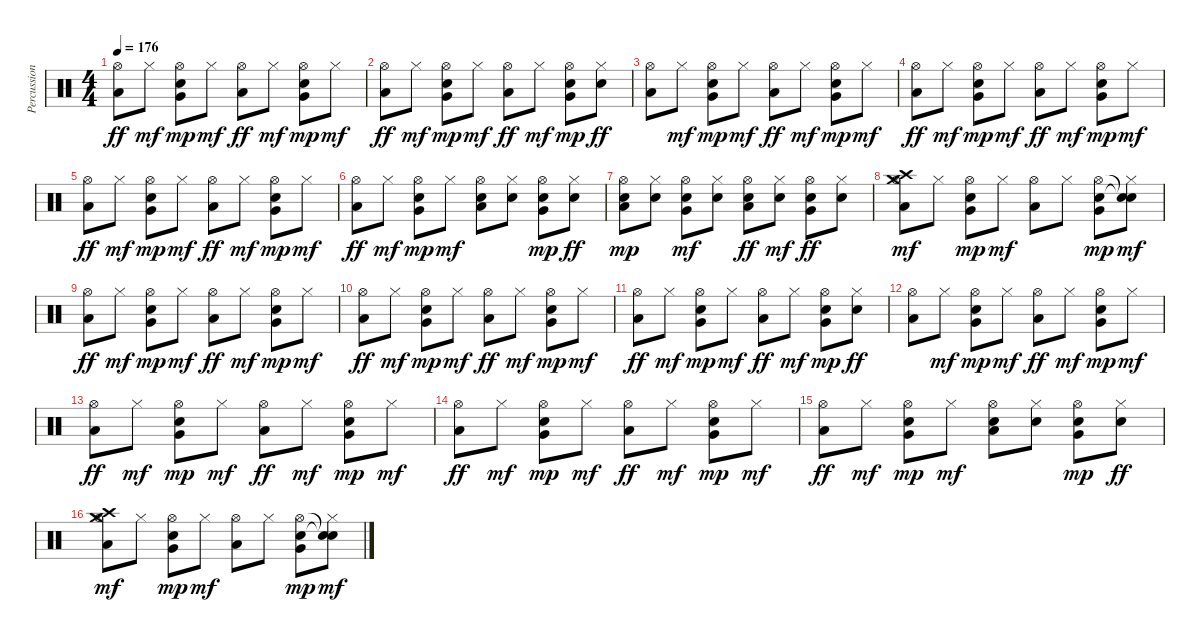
\track ("Percussions" "Percussion") {instrument percussion}
\staff {score}
\articulation defaults
\ts (4 4)
\tempo 176
\clef neutral
\ks c
("Hi-Hat (open)" "Low Floor Tom (hit)").8{dy ff} "Hi-Hat (closed)".8{dy mf} ("Hi-Hat (open)" "Electric Snare (hit)" "Very Low Tom (hit)").8{dy mp} "Hi-Hat (closed)".8{dy mf} ("Hi-Hat (open)" "Low Floor Tom (hit)").8{dy ff} "Hi-Hat (closed)".8{dy mf} ("Hi-Hat (open)" "Electric Snare (hit)" "Very Low Tom (hit)").8{dy mp} "Hi-Hat (closed)".8{dy mf} |
("Hi-Hat (open)" "Low Floor Tom (hit)").8{dy ff} "Hi-Hat (closed)".8{dy mf} ("Hi-Hat (open)" "Electric Snare (hit)" "Very Low Tom (hit)").8{dy mp} "Hi-Hat (closed)".8{dy mf} ("Hi-Hat (open)" "Low Floor Tom (hit)").8{dy ff} "Hi-Hat (closed)".8{dy mf} ("Hi-Hat (open)" "Very Low Tom (hit)" "Electric Snare (hit)").8{dy mp} ("Hi-Hat (closed)" "Electric Snare (hit)").8{dy ff} |
("Hi-Hat (open)" "Low Floor Tom (hit)").8 "Hi-Hat (closed)".8{dy mf} ("Hi-Hat (open)" "Electric Snare (hit)" "Very Low Tom (hit)").8{dy mp} "Hi-Hat (closed)".8{dy mf} ("Hi-Hat (open)" "Low Floor Tom (hit)").8{dy ff} "Hi-Hat (closed)".8{dy mf} ("Hi-Hat (open)" "Electric Snare (hit)" "Very Low Tom (hit)").8{dy mp} "Hi-Hat (closed)".8{dy mf} |
("Hi-Hat (open)" "Low Floor Tom (hit)").8{dy ff} "Hi-Hat (closed)".8{dy mf} ("Hi-Hat (open)" "Electric Snare (hit)" "Very Low Tom (hit)").8{dy mp} "Hi-Hat (closed)".8{dy mf} ("Hi-Hat (open)" "Low Floor Tom (hit)").8{dy ff} "Hi-Hat (closed)".8{dy mf} ("Hi-Hat (open)" "Electric Snare (hit)" "Very Low Tom (hit)").8{dy mp} "Hi-Hat (closed)".8{dy mf} |
("Hi-Hat (open)" "Low Floor Tom (hit)").8{dy ff} "Hi-Hat (closed)".8{dy mf} ("Hi-Hat (open)" "Electric Snare (hit)" "Very Low Tom (hit)").8{dy mp} "Hi-Hat (closed)".8{dy mf} ("Hi-Hat (open)" "Low Floor Tom (hit)").8{dy ff} "Hi-Hat (closed)".8{dy mf} ("Hi-Hat (open)" "Electric Snare (hit)" "Very Low Tom (hit)").8{dy mp} "Hi-Hat (closed)".8{dy mf} |
("Hi-Hat (open)" "Low Floor Tom (hit)").8{dy ff} "Hi-Hat (closed)".8{dy mf} ("Hi-Hat (open)" "Electric Snare (hit)" "Very Low Tom (hit)").8{dy mp} "Hi-Hat (closed)".8{dy mf} ("Hi-Hat (open)" "Low Floor Tom (hit)" "Electric Snare (hit)").8 ("Hi-Hat (closed)" "Electric Snare (hit)").8 ("Hi-Hat (open)" "Very Low Tom (hit)" "Electric Snare (hit)").8{dy mp} ("Hi-Hat (closed)" "Electric Snare (hit)").8{dy ff} |
("Hi-Hat (open)" "Low Floor Tom (hit)" "Electric Snare (hit)").8{dy mp} ("Hi-Hat (closed)" "Electric Snare (hit)").8 ("Hi-Hat (open)" "Very Low Tom (hit)" "Electric Snare (hit)").8{dy mf} ("Hi-Hat (closed)" "Electric Snare (hit)").8 ("Hi-Hat (open)" "Low Floor Tom (hit)" "Electric Snare (hit)").8{dy ff} ("Hi-Hat (closed)" "Electric Snare (hit)").8{dy mf} ("Hi-Hat (open)" "Very Low Tom (hit)" "Electric Snare (hit)").8{dy ff} ("Hi-Hat (closed)" "Electric Snare (hit)").8 |
("Crash high (hit)" "Crash medium (hit)" "Hi-Hat (open)" "Low Floor Tom (hit)").8{dy mf} "Hi-Hat (closed)".8 ("Hi-Hat (open)" "Electric Snare (hit)" "Very Low Tom (hit)").8{dy mp} "Hi-Hat (closed)".8{dy mf} ("Hi-Hat (open)" "Low Floor Tom (hit)").8 "Hi-Hat (closed)".8 ("Hi-Hat (open)" "Electric Snare (hit)" "Very Low Tom (hit)").8{dy mp} ("Snare (hit)"{t} "Snare (hit)"{t} "Hi-Hat (closed)").8{dy mf} |
("Hi-Hat (open)" "Low Floor Tom (hit)").8{dy ff} "Hi-Hat (closed)".8{dy mf} ("Hi-Hat (open)" "Electric Snare (hit)" "Very Low Tom (hit)").8{dy mp} "Hi-Hat (closed)".8{dy mf} ("Hi-Hat (open)" "Low Floor Tom (hit)").8{dy ff} "Hi-Hat (closed)".8{dy mf} ("Hi-Hat (open)" "Electric Snare (hit)" "Very Low Tom (hit)").8{dy mp} "Hi-Hat (closed)".8{dy mf} |
("Hi-Hat (open)" "Low Floor Tom (hit)").8{dy ff} "Hi-Hat (closed)".8{dy mf} ("Hi-Hat (open)" "Electric Snare (hit)" "Very Low Tom (hit)").8{dy mp} "Hi-Hat (closed)".8{dy mf} ("Hi-Hat (open)" "Low Floor Tom (hit)").8{dy ff} "Hi-Hat (closed)".8{dy mf} ("Hi-Hat (open)" "Electric Snare (hit)" "Very Low Tom (hit)").8{dy mp} "Hi-Hat (closed)".8{dy mf} |
("Hi-Hat (open)" "Low Floor Tom (hit)").8{dy ff} "Hi-Hat (closed)".8{dy mf} ("Hi-Hat (open)" "Electric Snare (hit)" "Very Low Tom (hit)").8{dy mp} "Hi-Hat (closed)".8{dy mf} ("Hi-Hat (open)" "Low Floor Tom (hit)").8{dy ff} "Hi-Hat (closed)".8{dy mf} ("Hi-Hat (open)" "Very Low Tom (hit)" "Electric Snare (hit)").8{dy mp} ("Hi-Hat (closed)" "Electric Snare (hit)").8{dy ff} |
("Hi-Hat (open)" "Low Floor Tom (hit)").8 "Hi-Hat (closed)".8{dy mf} ("Hi-Hat (open)" "Electric Snare (hit)" "Very Low Tom (hit)").8{dy mp} "Hi-Hat (closed)".8{dy mf} ("Hi-Hat (open)" "Low Floor Tom (hit)").8{dy ff} "Hi-Hat (closed)".8{dy mf} ("Hi-Hat (open)" "Electric Snare (hit)" "Very Low Tom (hit)").8{dy mp} "Hi-Hat (closed)".8{dy mf} |
("Hi-Hat (open)" "Low Floor Tom (hit)").8{dy ff} "Hi-Hat (closed)".8{dy mf} ("Hi-Hat (open)" "Electric Snare (hit)" "Very Low Tom (hit)").8{dy mp} "Hi-Hat (closed)".8{dy mf} ("Hi-Hat (open)" "Low Floor Tom (hit)").8{dy ff} "Hi-Hat (closed)".8{dy mf} ("Hi-Hat (open)" "Electric Snare (hit)" "Very Low Tom (hit)").8{dy mp} "Hi-Hat (closed)".8{dy mf} |
("Hi-Hat (open)" "Low Floor Tom (hit)").8{dy ff} "Hi-Hat (closed)".8{dy mf} ("Hi-Hat (open)" "Electric Snare (hit)" "Very Low Tom (hit)").8{dy mp} "Hi-Hat (closed)".8{dy mf} ("Hi-Hat (open)" "Low Floor Tom (hit)").8{dy ff} "Hi-Hat (closed)".8{dy mf} ("Hi-Hat (open)" "Electric Snare (hit)" "Very Low Tom (hit)").8{dy mp} "Hi-Hat (closed)".8{dy mf} |
("Hi-Hat (open)" "Low Floor Tom (hit)").8{dy ff} "Hi-Hat (closed)".8{dy mf} ("Hi-Hat (open)" "Electric Snare (hit)" "Very Low Tom (hit)").8{dy mp} "Hi-Hat (closed)".8{dy mf} ("Hi-Hat (open)" "Low Floor Tom (hit)" "Electric Snare (hit)").8 ("Hi-Hat (closed)" "Electric Snare (hit)").8 ("Hi-Hat (open)" "Very Low Tom (hit)" "Electric Snare (hit)").8{dy mp} ("Hi-Hat (closed)" "Electric Snare (hit)").8{dy ff} |
("Crash high (hit)" "Crash medium (hit)" "Hi-Hat (open)" "Low Floor Tom (hit)").8{dy mf} "Hi-Hat (closed)".8 ("Hi-Hat (open)" "Electric Snare (hit)" "Very Low Tom (hit)").8{dy mp} "Hi-Hat (closed)".8{dy mf} ("Hi-Hat (open)" "Low Floor Tom (hit)").8 "Hi-Hat (closed)".8 ("Hi-Hat (open)" "Electric Snare (hit)" "Very Low Tom (hit)").8{dy mp} ("Snare (hit)"{t} "Snare (hit)"{t} "Hi-Hat (closed)").8{dy mf}
